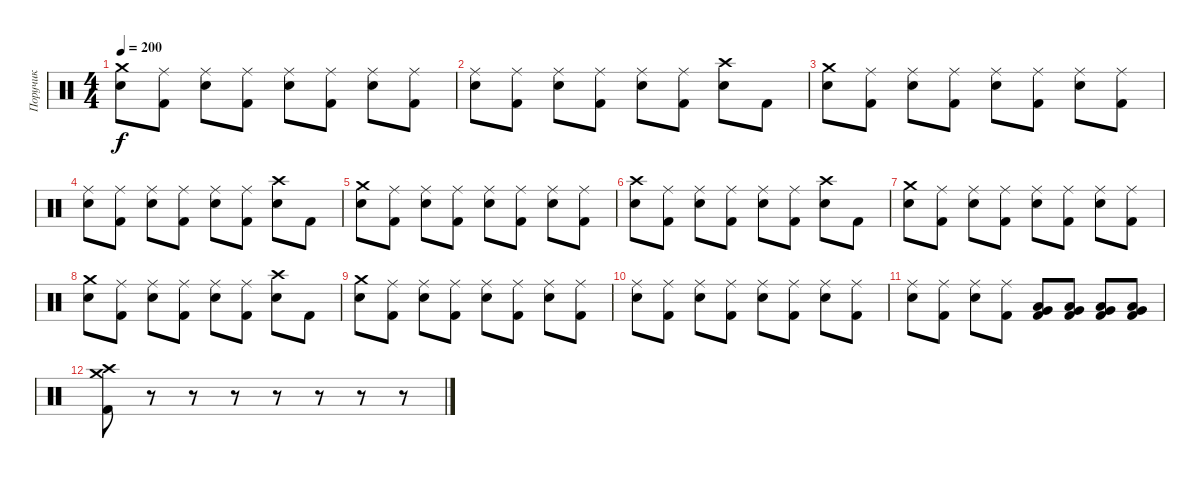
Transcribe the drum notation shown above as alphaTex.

\track ("Поручик" "Поручик") {instrument percussion}
\staff {score}
\articulation defaults
\ts (4 4)
\tempo 200
\clef neutral
\ks c
("Crash medium (hit)" "Electric Snare (hit)").8{dy f} ("Ride (middle)" "Kick (hit) 2").8 ("Ride (middle)" "Electric Snare (hit)").8 ("Ride (middle)" "Kick (hit) 2").8 ("Ride (middle)" "Electric Snare (hit)").8 ("Ride (middle)" "Kick (hit) 2").8 ("Ride (middle)" "Electric Snare (hit)").8 ("Ride (middle)" "Kick (hit) 2").8 |
("Ride (middle)" "Electric Snare (hit)").8 ("Ride (middle)" "Kick (hit) 2").8 ("Ride (middle)" "Electric Snare (hit)").8 ("Ride (middle)" "Kick (hit) 2").8 ("Ride (middle)" "Electric Snare (hit)").8 ("Ride (middle)" "Kick (hit) 2").8 ("Crash high (hit)" "Electric Snare (hit)").8 "Kick (hit) 2".8 |
("Crash medium (hit)" "Electric Snare (hit)").8 ("Ride (middle)" "Kick (hit) 2").8 ("Ride (middle)" "Electric Snare (hit)").8 ("Ride (middle)" "Kick (hit) 2").8 ("Ride (middle)" "Electric Snare (hit)").8 ("Ride (middle)" "Kick (hit) 2").8 ("Ride (middle)" "Electric Snare (hit)").8 ("Ride (middle)" "Kick (hit) 2").8 |
("Ride (middle)" "Electric Snare (hit)").8 ("Ride (middle)" "Kick (hit) 2").8 ("Ride (middle)" "Electric Snare (hit)").8 ("Ride (middle)" "Kick (hit) 2").8 ("Ride (middle)" "Electric Snare (hit)").8 ("Ride (middle)" "Kick (hit) 2").8 ("Crash high (hit)" "Electric Snare (hit)").8 "Kick (hit) 2".8 |
("Crash medium (hit)" "Electric Snare (hit)").8 ("Ride (middle)" "Kick (hit) 2").8 ("Ride (middle)" "Electric Snare (hit)").8 ("Ride (middle)" "Kick (hit) 2").8 ("Ride (middle)" "Electric Snare (hit)").8 ("Ride (middle)" "Kick (hit) 2").8 ("Ride (middle)" "Electric Snare (hit)").8 ("Ride (middle)" "Kick (hit) 2").8 |
("Crash high (hit)" "Electric Snare (hit)").8 ("Ride (middle)" "Kick (hit) 2").8 ("Ride (middle)" "Electric Snare (hit)").8 ("Ride (middle)" "Kick (hit) 2").8 ("Ride (middle)" "Electric Snare (hit)").8 ("Ride (middle)" "Kick (hit) 2").8 ("Crash high (hit)" "Electric Snare (hit)").8 "Kick (hit) 2".8 |
("Crash medium (hit)" "Electric Snare (hit)").8 ("Ride (middle)" "Kick (hit) 2").8 ("Ride (middle)" "Electric Snare (hit)").8 ("Ride (middle)" "Kick (hit) 2").8 ("Ride (middle)" "Electric Snare (hit)").8 ("Ride (middle)" "Kick (hit) 2").8 ("Ride (middle)" "Electric Snare (hit)").8 ("Ride (middle)" "Kick (hit) 2").8 |
("Crash medium (hit)" "Electric Snare (hit)").8 ("Ride (middle)" "Kick (hit) 2").8 ("Ride (middle)" "Electric Snare (hit)").8 ("Ride (middle)" "Kick (hit) 2").8 ("Ride (middle)" "Electric Snare (hit)").8 ("Ride (middle)" "Kick (hit) 2").8 ("Crash high (hit)" "Electric Snare (hit)").8 "Kick (hit) 2".8 |
("Crash medium (hit)" "Electric Snare (hit)").8 ("Ride (middle)" "Kick (hit) 2").8 ("Ride (middle)" "Electric Snare (hit)").8 ("Ride (middle)" "Kick (hit) 2").8 ("Ride (middle)" "Electric Snare (hit)").8 ("Ride (middle)" "Kick (hit) 2").8 ("Ride (middle)" "Electric Snare (hit)").8 ("Ride (middle)" "Kick (hit) 2").8 |
("Ride (middle)" "Electric Snare (hit)").8 ("Ride (middle)" "Kick (hit) 2").8 ("Ride (middle)" "Electric Snare (hit)").8 ("Ride (middle)" "Kick (hit) 2").8 ("Ride (middle)" "Electric Snare (hit)").8 ("Ride (middle)" "Kick (hit) 2").8 ("Ride (middle)" "Electric Snare (hit)").8 ("Ride (middle)" "Kick (hit) 2").8 |
("Ride (middle)" "Electric Snare (hit)").8 ("Ride (middle)" "Kick (hit) 2").8 ("Ride (middle)" "Electric Snare (hit)").8 ("Ride (middle)" "Kick (hit) 2").8 ("Very Low Tom (hit)" "Low Floor Tom (hit)" "Kick (hit) 2").8 ("Very Low Tom (hit)" "Low Floor Tom (hit)" "Kick (hit) 2").8 ("Very Low Tom (hit)" "Low Floor Tom (hit)" "Kick (hit) 2").8 ("Very Low Tom (hit)" "Low Floor Tom (hit)" "Kick (hit) 2").8 |
("Crash medium (hit)" "Crash high (hit)" "Kick (hit) 2").8 r.8 r.8 r.8 r.8 r.8 r.8 r.8
